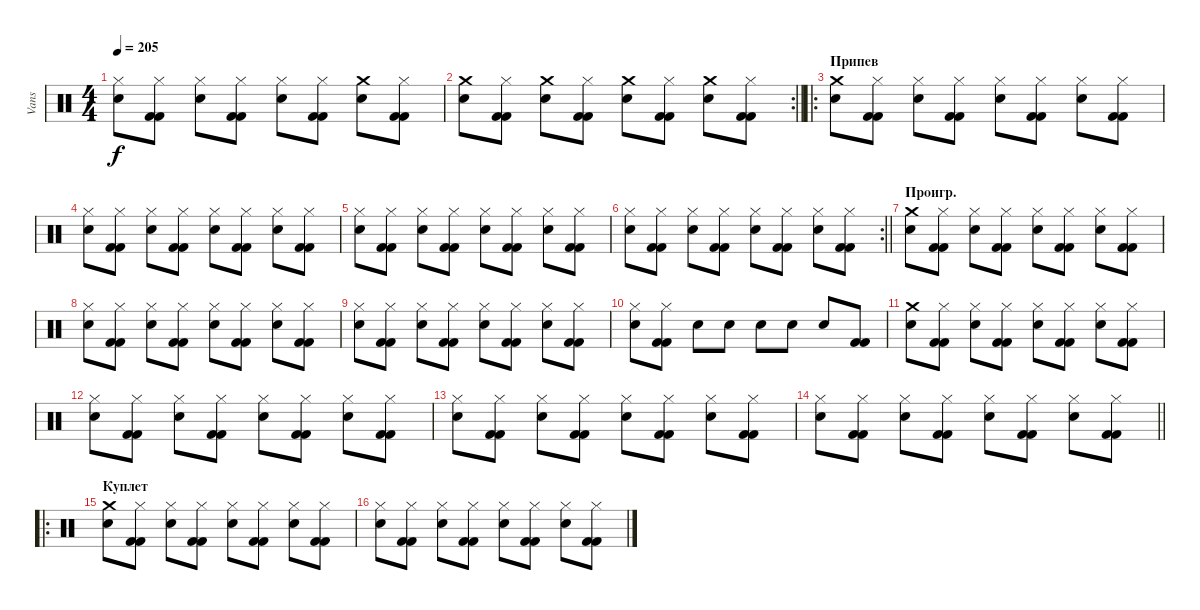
\track ("Vans" "Vans") {instrument percussion}
\staff {score}
\articulation defaults
\ts (4 4)
\tempo 205
\clef neutral
\ks c
("Hi-Hat (closed)" "Snare (hit) 2").8{dy f} ("Hi-Hat (closed)" "Kick (hit) 2" "Kick (hit) 2").8 ("Hi-Hat (closed)" "Snare (hit) 2").8 ("Hi-Hat (closed)" "Kick (hit) 2" "Kick (hit) 2").8 ("Hi-Hat (closed)" "Snare (hit) 2").8 ("Hi-Hat (closed)" "Kick (hit) 2" "Kick (hit) 2").8 ("Crash medium (hit)" "Snare (hit) 2").8 ("Hi-Hat (closed)" "Kick (hit) 2" "Kick (hit) 2").8 |
\rc 2
\barLineRight lightlight
("Crash medium (hit)" "Snare (hit) 2").8 ("Hi-Hat (closed)" "Kick (hit) 2" "Kick (hit) 2").8 ("Crash medium (hit)" "Snare (hit) 2").8 ("Hi-Hat (closed)" "Kick (hit) 2" "Kick (hit) 2").8 ("Crash medium (hit)" "Snare (hit) 2").8 ("Hi-Hat (closed)" "Kick (hit) 2" "Kick (hit) 2").8 ("Crash medium (hit)" "Snare (hit) 2").8 ("Hi-Hat (closed)" "Kick (hit) 2" "Kick (hit) 2").8 |
\ro
\section ("" "Припев")
("Crash medium (hit)" "Snare (hit) 2").8 ("Hi-Hat (closed)" "Kick (hit) 2" "Kick (hit) 2").8 ("Hi-Hat (closed)" "Snare (hit) 2").8 ("Hi-Hat (closed)" "Kick (hit) 2" "Kick (hit) 2").8 ("Hi-Hat (closed)" "Snare (hit) 2").8 ("Hi-Hat (closed)" "Kick (hit) 2" "Kick (hit) 2").8 ("Hi-Hat (closed)" "Snare (hit) 2").8 ("Hi-Hat (closed)" "Kick (hit) 2" "Kick (hit) 2").8 |
("Hi-Hat (closed)" "Snare (hit) 2").8 ("Hi-Hat (closed)" "Kick (hit) 2" "Kick (hit) 2").8 ("Hi-Hat (closed)" "Snare (hit) 2").8 ("Hi-Hat (closed)" "Kick (hit) 2" "Kick (hit) 2").8 ("Hi-Hat (closed)" "Snare (hit) 2").8 ("Hi-Hat (closed)" "Kick (hit) 2" "Kick (hit) 2").8 ("Hi-Hat (closed)" "Snare (hit) 2").8 ("Hi-Hat (closed)" "Kick (hit) 2" "Kick (hit) 2").8 |
("Hi-Hat (closed)" "Snare (hit) 2").8 ("Hi-Hat (closed)" "Kick (hit) 2" "Kick (hit) 2").8 ("Hi-Hat (closed)" "Snare (hit) 2").8 ("Hi-Hat (closed)" "Kick (hit) 2" "Kick (hit) 2").8 ("Hi-Hat (closed)" "Snare (hit) 2").8 ("Hi-Hat (closed)" "Kick (hit) 2" "Kick (hit) 2").8 ("Hi-Hat (closed)" "Snare (hit) 2").8 ("Hi-Hat (closed)" "Kick (hit) 2" "Kick (hit) 2").8 |
\rc 2
\barLineRight lightlight
("Hi-Hat (closed)" "Snare (hit) 2").8 ("Hi-Hat (closed)" "Kick (hit) 2" "Kick (hit) 2").8 ("Hi-Hat (closed)" "Snare (hit) 2").8 ("Hi-Hat (closed)" "Kick (hit) 2" "Kick (hit) 2").8 ("Hi-Hat (closed)" "Snare (hit) 2").8 ("Hi-Hat (closed)" "Kick (hit) 2" "Kick (hit) 2").8 ("Hi-Hat (closed)" "Snare (hit) 2").8 ("Hi-Hat (closed)" "Kick (hit) 2" "Kick (hit) 2").8 |
\section ("" "Проигр.")
("Crash medium (hit)" "Snare (hit) 2").8 ("Hi-Hat (closed)" "Kick (hit) 2" "Kick (hit) 2").8 ("Hi-Hat (closed)" "Snare (hit) 2").8 ("Hi-Hat (closed)" "Kick (hit) 2" "Kick (hit) 2").8 ("Hi-Hat (closed)" "Snare (hit) 2").8 ("Hi-Hat (closed)" "Kick (hit) 2" "Kick (hit) 2").8 ("Hi-Hat (closed)" "Snare (hit) 2").8 ("Hi-Hat (closed)" "Kick (hit) 2" "Kick (hit) 2").8 |
("Hi-Hat (closed)" "Snare (hit) 2").8 ("Hi-Hat (closed)" "Kick (hit) 2" "Kick (hit) 2").8 ("Hi-Hat (closed)" "Snare (hit) 2").8 ("Hi-Hat (closed)" "Kick (hit) 2" "Kick (hit) 2").8 ("Hi-Hat (closed)" "Snare (hit) 2").8 ("Hi-Hat (closed)" "Kick (hit) 2" "Kick (hit) 2").8 ("Hi-Hat (closed)" "Snare (hit) 2").8 ("Hi-Hat (closed)" "Kick (hit) 2" "Kick (hit) 2").8 |
("Hi-Hat (closed)" "Snare (hit) 2").8 ("Hi-Hat (closed)" "Kick (hit) 2" "Kick (hit) 2").8 ("Hi-Hat (closed)" "Snare (hit) 2").8 ("Hi-Hat (closed)" "Kick (hit) 2" "Kick (hit) 2").8 ("Hi-Hat (closed)" "Snare (hit) 2").8 ("Hi-Hat (closed)" "Kick (hit) 2" "Kick (hit) 2").8 ("Hi-Hat (closed)" "Snare (hit) 2").8 ("Hi-Hat (closed)" "Kick (hit) 2" "Kick (hit) 2").8 |
("Hi-Hat (closed)" "Snare (hit) 2").8 ("Hi-Hat (closed)" "Kick (hit) 2" "Kick (hit) 2").8 "Snare (hit) 2".8 "Snare (hit) 2".8 "Snare (hit) 2".8 "Snare (hit) 2".8 "Snare (hit) 2".8 ("Kick (hit) 2" "Kick (hit) 2").8 |
("Crash medium (hit)" "Snare (hit) 2").8 ("Hi-Hat (closed)" "Kick (hit) 2" "Kick (hit) 2").8 ("Hi-Hat (closed)" "Snare (hit) 2").8 ("Hi-Hat (closed)" "Kick (hit) 2" "Kick (hit) 2").8 ("Hi-Hat (closed)" "Snare (hit) 2").8 ("Hi-Hat (closed)" "Kick (hit) 2" "Kick (hit) 2").8 ("Hi-Hat (closed)" "Snare (hit) 2").8 ("Hi-Hat (closed)" "Kick (hit) 2" "Kick (hit) 2").8 |
("Hi-Hat (closed)" "Snare (hit) 2").8 ("Hi-Hat (closed)" "Kick (hit) 2" "Kick (hit) 2").8 ("Hi-Hat (closed)" "Snare (hit) 2").8 ("Hi-Hat (closed)" "Kick (hit) 2" "Kick (hit) 2").8 ("Hi-Hat (closed)" "Snare (hit) 2").8 ("Hi-Hat (closed)" "Kick (hit) 2" "Kick (hit) 2").8 ("Hi-Hat (closed)" "Snare (hit) 2").8 ("Hi-Hat (closed)" "Kick (hit) 2" "Kick (hit) 2").8 |
("Hi-Hat (closed)" "Snare (hit) 2").8 ("Hi-Hat (closed)" "Kick (hit) 2" "Kick (hit) 2").8 ("Hi-Hat (closed)" "Snare (hit) 2").8 ("Hi-Hat (closed)" "Kick (hit) 2" "Kick (hit) 2").8 ("Hi-Hat (closed)" "Snare (hit) 2").8 ("Hi-Hat (closed)" "Kick (hit) 2" "Kick (hit) 2").8 ("Hi-Hat (closed)" "Snare (hit) 2").8 ("Hi-Hat (closed)" "Kick (hit) 2" "Kick (hit) 2").8 |
\barLineRight lightlight
("Hi-Hat (closed)" "Snare (hit) 2").8 ("Hi-Hat (closed)" "Kick (hit) 2" "Kick (hit) 2").8 ("Hi-Hat (closed)" "Snare (hit) 2").8 ("Hi-Hat (closed)" "Kick (hit) 2" "Kick (hit) 2").8 ("Hi-Hat (closed)" "Snare (hit) 2").8 ("Hi-Hat (closed)" "Kick (hit) 2" "Kick (hit) 2").8 ("Hi-Hat (closed)" "Snare (hit) 2").8 ("Hi-Hat (closed)" "Kick (hit) 2" "Kick (hit) 2").8 |
\ro
\section ("" "Куплет")
("Crash medium (hit)" "Snare (hit) 2").8 ("Hi-Hat (closed)" "Kick (hit) 2" "Kick (hit) 2").8 ("Hi-Hat (closed)" "Snare (hit) 2").8 ("Hi-Hat (closed)" "Kick (hit) 2" "Kick (hit) 2").8 ("Hi-Hat (closed)" "Snare (hit) 2").8 ("Hi-Hat (closed)" "Kick (hit) 2" "Kick (hit) 2").8 ("Hi-Hat (closed)" "Snare (hit) 2").8 ("Hi-Hat (closed)" "Kick (hit) 2" "Kick (hit) 2").8 |
("Hi-Hat (closed)" "Snare (hit) 2").8 ("Hi-Hat (closed)" "Kick (hit) 2" "Kick (hit) 2").8 ("Hi-Hat (closed)" "Snare (hit) 2").8 ("Hi-Hat (closed)" "Kick (hit) 2" "Kick (hit) 2").8 ("Hi-Hat (closed)" "Snare (hit) 2").8 ("Hi-Hat (closed)" "Kick (hit) 2" "Kick (hit) 2").8 ("Hi-Hat (closed)" "Snare (hit) 2").8 ("Hi-Hat (closed)" "Kick (hit) 2" "Kick (hit) 2").8
